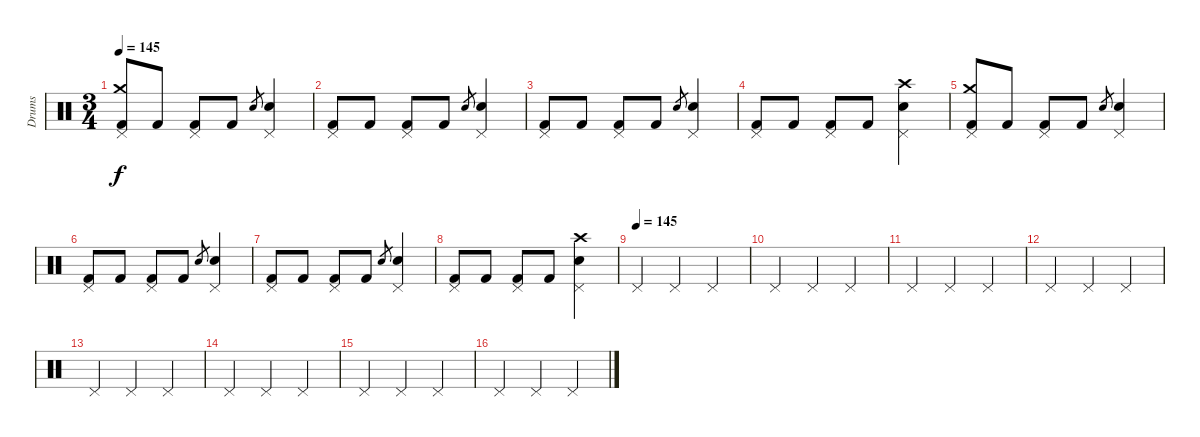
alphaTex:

\track ("Drums" "Drums") {instrument percussion}
\staff {score}
\articulation defaults
\ts (3 4)
\tempo 145
\clef neutral
\ks c
("Pedal Hi-Hat (hit)" "Crash medium (hit)" "Kick (hit) 2").8{dy f} "Kick (hit) 2".8 ("Pedal Hi-Hat (hit)" "Kick (hit) 2").8 "Kick (hit) 2".8 "Electric Snare (hit)".8{gr} ("Pedal Hi-Hat (hit)" "Electric Snare (hit)").4 |
("Pedal Hi-Hat (hit)" "Kick (hit) 2").8 "Kick (hit) 2".8 ("Pedal Hi-Hat (hit)" "Kick (hit) 2").8 "Kick (hit) 2".8 "Electric Snare (hit)".8{gr} ("Pedal Hi-Hat (hit)" "Electric Snare (hit)").4 |
("Pedal Hi-Hat (hit)" "Kick (hit) 2").8 "Kick (hit) 2".8 ("Pedal Hi-Hat (hit)" "Kick (hit) 2").8 "Kick (hit) 2".8 "Electric Snare (hit)".8{gr} ("Pedal Hi-Hat (hit)" "Electric Snare (hit)").4 |
("Pedal Hi-Hat (hit)" "Kick (hit) 2").8 "Kick (hit) 2".8 ("Pedal Hi-Hat (hit)" "Kick (hit) 2").8 "Kick (hit) 2".8 ("Pedal Hi-Hat (hit)" "Crash high (hit)" "Electric Snare (hit)").4 |
("Pedal Hi-Hat (hit)" "Crash medium (hit)" "Kick (hit) 2").8 "Kick (hit) 2".8 ("Pedal Hi-Hat (hit)" "Kick (hit) 2").8 "Kick (hit) 2".8 "Electric Snare (hit)".8{gr} ("Pedal Hi-Hat (hit)" "Electric Snare (hit)").4 |
("Pedal Hi-Hat (hit)" "Kick (hit) 2").8 "Kick (hit) 2".8 ("Pedal Hi-Hat (hit)" "Kick (hit) 2").8 "Kick (hit) 2".8 "Electric Snare (hit)".8{gr} ("Pedal Hi-Hat (hit)" "Electric Snare (hit)").4 |
("Pedal Hi-Hat (hit)" "Kick (hit) 2").8 "Kick (hit) 2".8 ("Pedal Hi-Hat (hit)" "Kick (hit) 2").8 "Kick (hit) 2".8 "Electric Snare (hit)".8{gr} ("Pedal Hi-Hat (hit)" "Electric Snare (hit)").4 |
("Pedal Hi-Hat (hit)" "Kick (hit) 2").8 "Kick (hit) 2".8 ("Pedal Hi-Hat (hit)" "Kick (hit) 2").8 "Kick (hit) 2".8 ("Pedal Hi-Hat (hit)" "Crash high (hit)" "Electric Snare (hit)").4 |
\tempo (145)
"Pedal Hi-Hat (hit)".4 "Pedal Hi-Hat (hit)".4 "Pedal Hi-Hat (hit)".4 |
"Pedal Hi-Hat (hit)".4 "Pedal Hi-Hat (hit)".4 "Pedal Hi-Hat (hit)".4 |
"Pedal Hi-Hat (hit)".4 "Pedal Hi-Hat (hit)".4 "Pedal Hi-Hat (hit)".4 |
"Pedal Hi-Hat (hit)".4 "Pedal Hi-Hat (hit)".4 "Pedal Hi-Hat (hit)".4 |
"Pedal Hi-Hat (hit)".4 "Pedal Hi-Hat (hit)".4 "Pedal Hi-Hat (hit)".4 |
"Pedal Hi-Hat (hit)".4 "Pedal Hi-Hat (hit)".4 "Pedal Hi-Hat (hit)".4 |
"Pedal Hi-Hat (hit)".4 "Pedal Hi-Hat (hit)".4 "Pedal Hi-Hat (hit)".4 |
"Pedal Hi-Hat (hit)".4 "Pedal Hi-Hat (hit)".4 "Pedal Hi-Hat (hit)".4
